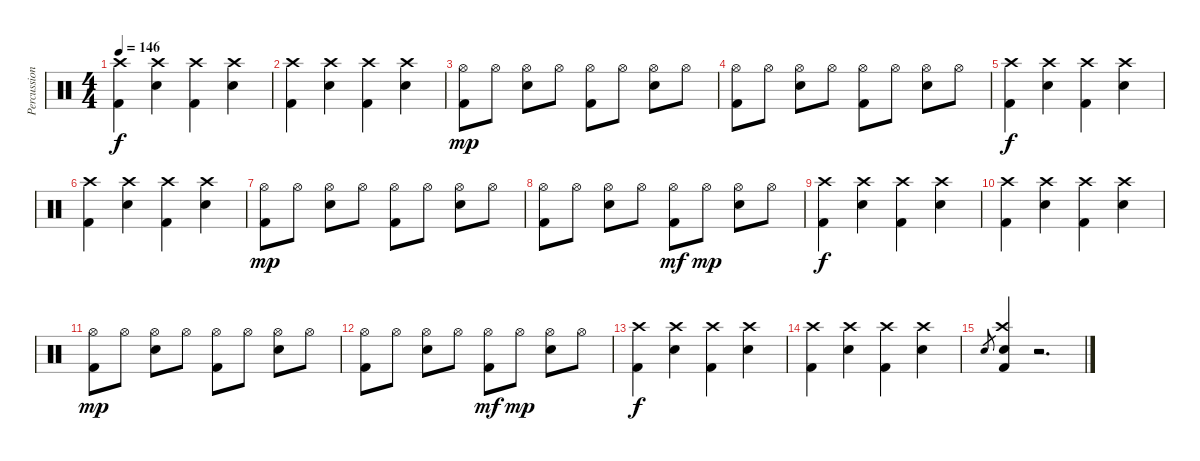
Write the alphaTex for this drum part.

\track ("Percussion" "Percussion") {instrument percussion}
\staff {score}
\articulation defaults
\ts (4 4)
\tempo 146
\clef neutral
\ks c
("Kick (hit) 2" "Crash high (hit)").4{dy f} ("Electric Snare (hit)" "Crash high (hit)").4 ("Kick (hit) 2" "Crash high (hit)").4 ("Electric Snare (hit)" "Crash high (hit)").4 |
("Kick (hit) 2" "Crash high (hit)").4 ("Electric Snare (hit)" "Crash high (hit)").4 ("Kick (hit) 2" "Crash high (hit)").4 ("Electric Snare (hit)" "Crash high (hit)").4 |
("Kick (hit) 2" "Hi-Hat (open)").8{dy mp} "Hi-Hat (open)".8 ("Electric Snare (hit)" "Hi-Hat (open)").8 "Hi-Hat (open)".8 ("Kick (hit) 2" "Hi-Hat (open)").8 "Hi-Hat (open)".8 ("Electric Snare (hit)" "Hi-Hat (open)").8 "Hi-Hat (open)".8 |
("Kick (hit) 2" "Hi-Hat (open)").8 "Hi-Hat (open)".8 ("Electric Snare (hit)" "Hi-Hat (open)").8 "Hi-Hat (open)".8 ("Kick (hit) 2" "Hi-Hat (open)").8 "Hi-Hat (open)".8 ("Electric Snare (hit)" "Hi-Hat (open)").8 "Hi-Hat (open)".8 |
("Kick (hit) 2" "Crash high (hit)").4{dy f} ("Electric Snare (hit)" "Crash high (hit)").4 ("Kick (hit) 2" "Crash high (hit)").4 ("Electric Snare (hit)" "Crash high (hit)").4 |
("Kick (hit) 2" "Crash high (hit)").4 ("Electric Snare (hit)" "Crash high (hit)").4 ("Kick (hit) 2" "Crash high (hit)").4 ("Electric Snare (hit)" "Crash high (hit)").4 |
("Kick (hit) 2" "Hi-Hat (open)").8{dy mp} "Hi-Hat (open)".8 ("Electric Snare (hit)" "Hi-Hat (open)").8 "Hi-Hat (open)".8 ("Kick (hit) 2" "Hi-Hat (open)").8 "Hi-Hat (open)".8 ("Electric Snare (hit)" "Hi-Hat (open)").8 "Hi-Hat (open)".8 |
("Kick (hit) 2" "Hi-Hat (open)").8 "Hi-Hat (open)".8 ("Electric Snare (hit)" "Hi-Hat (open)").8 "Hi-Hat (open)".8 ("Kick (hit) 2" "Hi-Hat (open)").8{dy mf} "Hi-Hat (open)".8{dy mp} ("Electric Snare (hit)" "Hi-Hat (open)").8 "Hi-Hat (open)".8 |
("Kick (hit) 2" "Crash high (hit)").4{dy f} ("Electric Snare (hit)" "Crash high (hit)").4 ("Kick (hit) 2" "Crash high (hit)").4 ("Electric Snare (hit)" "Crash high (hit)").4 |
("Kick (hit) 2" "Crash high (hit)").4 ("Electric Snare (hit)" "Crash high (hit)").4 ("Kick (hit) 2" "Crash high (hit)").4 ("Electric Snare (hit)" "Crash high (hit)").4 |
("Kick (hit) 2" "Hi-Hat (open)").8{dy mp} "Hi-Hat (open)".8 ("Electric Snare (hit)" "Hi-Hat (open)").8 "Hi-Hat (open)".8 ("Kick (hit) 2" "Hi-Hat (open)").8 "Hi-Hat (open)".8 ("Electric Snare (hit)" "Hi-Hat (open)").8 "Hi-Hat (open)".8 |
("Kick (hit) 2" "Hi-Hat (open)").8 "Hi-Hat (open)".8 ("Electric Snare (hit)" "Hi-Hat (open)").8 "Hi-Hat (open)".8 ("Kick (hit) 2" "Hi-Hat (open)").8{dy mf} "Hi-Hat (open)".8{dy mp} ("Electric Snare (hit)" "Hi-Hat (open)").8 "Hi-Hat (open)".8 |
("Kick (hit) 2" "Crash high (hit)").4{dy f} ("Electric Snare (hit)" "Crash high (hit)").4 ("Kick (hit) 2" "Crash high (hit)").4 ("Electric Snare (hit)" "Crash high (hit)").4 |
("Kick (hit) 2" "Crash high (hit)").4 ("Electric Snare (hit)" "Crash high (hit)").4 ("Kick (hit) 2" "Crash high (hit)").4 ("Electric Snare (hit)" "Crash high (hit)").4 |
"Electric Snare (hit)".8{gr} ("Electric Snare (hit)" "Crash high (hit)" "Kick (hit) 2").4 r.2{d}
